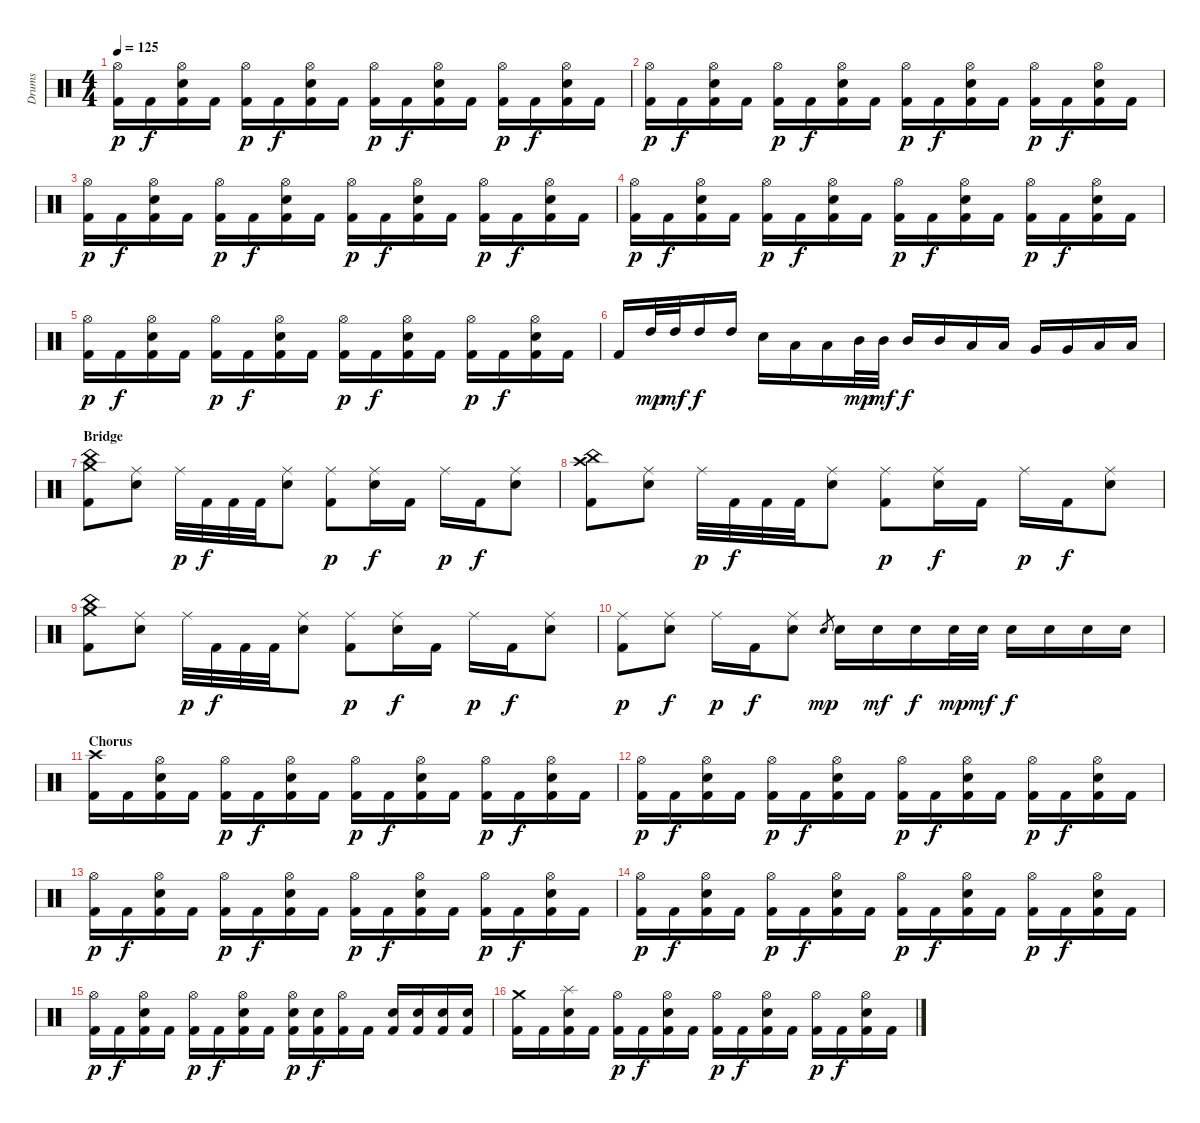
\track ("Drums" "Drums") {instrument percussion}
\staff {score}
\articulation defaults
\ts (4 4)
\tempo 125
\clef neutral
\ks c
("Hi-Hat (open)" "Kick (hit) 2").16{dy p} "Kick (hit) 2".16{dy f} ("Hi-Hat (open)" "Snare (hit) 2" "Kick (hit) 2").16 "Kick (hit) 2".16 ("Hi-Hat (open)" "Kick (hit) 2").16{dy p} "Kick (hit) 2".16{dy f} ("Hi-Hat (open)" "Snare (hit) 2" "Kick (hit) 2").16 "Kick (hit) 2".16 ("Hi-Hat (open)" "Kick (hit) 2").16{dy p} "Kick (hit) 2".16{dy f} ("Hi-Hat (open)" "Snare (hit) 2" "Kick (hit) 2").16 "Kick (hit) 2".16 ("Hi-Hat (open)" "Kick (hit) 2").16{dy p} "Kick (hit) 2".16{dy f} ("Hi-Hat (open)" "Snare (hit) 2" "Kick (hit) 2").16 "Kick (hit) 2".16 |
("Hi-Hat (open)" "Kick (hit) 2").16{dy p} "Kick (hit) 2".16{dy f} ("Hi-Hat (open)" "Snare (hit) 2" "Kick (hit) 2").16 "Kick (hit) 2".16 ("Hi-Hat (open)" "Kick (hit) 2").16{dy p} "Kick (hit) 2".16{dy f} ("Hi-Hat (open)" "Snare (hit) 2" "Kick (hit) 2").16 "Kick (hit) 2".16 ("Hi-Hat (open)" "Kick (hit) 2").16{dy p} "Kick (hit) 2".16{dy f} ("Hi-Hat (open)" "Snare (hit) 2" "Kick (hit) 2").16 "Kick (hit) 2".16 ("Hi-Hat (open)" "Kick (hit) 2").16{dy p} "Kick (hit) 2".16{dy f} ("Hi-Hat (open)" "Snare (hit) 2" "Kick (hit) 2").16 "Kick (hit) 2".16 |
("Hi-Hat (open)" "Kick (hit) 2").16{dy p} "Kick (hit) 2".16{dy f} ("Hi-Hat (open)" "Snare (hit) 2" "Kick (hit) 2").16 "Kick (hit) 2".16 ("Hi-Hat (open)" "Kick (hit) 2").16{dy p} "Kick (hit) 2".16{dy f} ("Hi-Hat (open)" "Snare (hit) 2" "Kick (hit) 2").16 "Kick (hit) 2".16 ("Hi-Hat (open)" "Kick (hit) 2").16{dy p} "Kick (hit) 2".16{dy f} ("Hi-Hat (open)" "Snare (hit) 2" "Kick (hit) 2").16 "Kick (hit) 2".16 ("Hi-Hat (open)" "Kick (hit) 2").16{dy p} "Kick (hit) 2".16{dy f} ("Hi-Hat (open)" "Snare (hit) 2" "Kick (hit) 2").16 "Kick (hit) 2".16 |
("Hi-Hat (open)" "Kick (hit) 2").16{dy p} "Kick (hit) 2".16{dy f} ("Hi-Hat (open)" "Snare (hit) 2" "Kick (hit) 2").16 "Kick (hit) 2".16 ("Hi-Hat (open)" "Kick (hit) 2").16{dy p} "Kick (hit) 2".16{dy f} ("Hi-Hat (open)" "Snare (hit) 2" "Kick (hit) 2").16 "Kick (hit) 2".16 ("Hi-Hat (open)" "Kick (hit) 2").16{dy p} "Kick (hit) 2".16{dy f} ("Hi-Hat (open)" "Snare (hit) 2" "Kick (hit) 2").16 "Kick (hit) 2".16 ("Hi-Hat (open)" "Kick (hit) 2").16{dy p} "Kick (hit) 2".16{dy f} ("Hi-Hat (open)" "Snare (hit) 2" "Kick (hit) 2").16 "Kick (hit) 2".16 |
("Hi-Hat (open)" "Kick (hit) 2").16{dy p} "Kick (hit) 2".16{dy f} ("Hi-Hat (open)" "Snare (hit) 2" "Kick (hit) 2").16 "Kick (hit) 2".16 ("Hi-Hat (open)" "Kick (hit) 2").16{dy p} "Kick (hit) 2".16{dy f} ("Hi-Hat (open)" "Snare (hit) 2" "Kick (hit) 2").16 "Kick (hit) 2".16 ("Hi-Hat (open)" "Kick (hit) 2").16{dy p} "Kick (hit) 2".16{dy f} ("Hi-Hat (open)" "Snare (hit) 2" "Kick (hit) 2").16 "Kick (hit) 2".16 ("Hi-Hat (open)" "Kick (hit) 2").16{dy p} "Kick (hit) 2".16{dy f} ("Hi-Hat (open)" "Snare (hit) 2" "Kick (hit) 2").16 "Kick (hit) 2".16 |
"Kick (hit) 2".16 "High Tom (hit)".32{dy mp} "High Tom (hit)".32{dy mf} "High Tom (hit)".16{dy f} "High Tom (hit)".16 "Snare (hit) 2".16 "Low Tom (hit)".16 "Low Tom (hit)".16 "Mid Tom (hit)".32{dy mp} "Mid Tom (hit)".32{dy mf} "Mid Tom (hit)".16{dy f} "Mid Tom (hit)".16 "Low Tom (hit)".16 "Low Tom (hit)".16 "Very Low Tom (hit)".16 "Very Low Tom (hit)".16 "Low Floor Tom (hit)".16 "Low Floor Tom (hit)".16 |
\section ("" "Bridge")
("Crash medium (hit)" "China (hit)" "Kick (hit) 2").8 ("Ride (middle)" "Snare (hit) 2").8 "Ride (middle)".32{dy p} "Kick (hit) 2".32{dy f} "Kick (hit) 2".32 "Kick (hit) 2".32 ("Ride (middle)" "Snare (hit) 2").8 ("Ride (middle)" "Kick (hit) 2").8{dy p} ("Ride (middle)" "Snare (hit) 2").16{dy f} "Kick (hit) 2".16 "Ride (middle)".16{dy p} "Kick (hit) 2".16{dy f} ("Ride (middle)" "Snare (hit) 2").8 |
("Crash high (hit)" "China (hit)" "Kick (hit) 2").8 ("Ride (middle)" "Snare (hit) 2").8 "Ride (middle)".32{dy p} "Kick (hit) 2".32{dy f} "Kick (hit) 2".32 "Kick (hit) 2".32 ("Ride (middle)" "Snare (hit) 2").8 ("Ride (middle)" "Kick (hit) 2").8{dy p} ("Ride (middle)" "Snare (hit) 2").16{dy f} "Kick (hit) 2".16 "Ride (middle)".16{dy p} "Kick (hit) 2".16{dy f} ("Ride (middle)" "Snare (hit) 2").8 |
("Crash medium (hit)" "China (hit)" "Kick (hit) 2").8 ("Ride (middle)" "Snare (hit) 2").8 "Ride (middle)".32{dy p} "Kick (hit) 2".32{dy f} "Kick (hit) 2".32 "Kick (hit) 2".32 ("Ride (middle)" "Snare (hit) 2").8 ("Ride (middle)" "Kick (hit) 2").8{dy p} ("Ride (middle)" "Snare (hit) 2").16{dy f} "Kick (hit) 2".16 "Ride (middle)".16{dy p} "Kick (hit) 2".16{dy f} ("Ride (middle)" "Snare (hit) 2").8 |
("Ride (middle)" "Kick (hit) 2").8{dy p} ("Ride (middle)" "Snare (hit) 2").8{dy f} "Ride (middle)".16{dy p} "Kick (hit) 2".16{dy f} ("Ride (middle)" "Snare (hit) 2").8 "Snare (hit) 2".8{gr dy mp} "Snare (hit) 2".16 "Snare (hit) 2".16{dy mf} "Snare (hit) 2".16{dy f} "Snare (hit) 2".32{dy mp} "Snare (hit) 2".32{dy mf} "Snare (hit) 2".16{dy f} "Snare (hit) 2".16 "Snare (hit) 2".16 "Snare (hit) 2".16 |
\section ("" "Chorus")
("Crash high (hit)" "Kick (hit) 2").16 "Kick (hit) 2".16 ("Hi-Hat (open)" "Snare (hit) 2" "Kick (hit) 2").16 "Kick (hit) 2".16 ("Hi-Hat (open)" "Kick (hit) 2").16{dy p} "Kick (hit) 2".16{dy f} ("Hi-Hat (open)" "Snare (hit) 2" "Kick (hit) 2").16 "Kick (hit) 2".16 ("Hi-Hat (open)" "Kick (hit) 2").16{dy p} "Kick (hit) 2".16{dy f} ("Hi-Hat (open)" "Snare (hit) 2" "Kick (hit) 2").16 "Kick (hit) 2".16 ("Hi-Hat (open)" "Kick (hit) 2").16{dy p} "Kick (hit) 2".16{dy f} ("Hi-Hat (open)" "Snare (hit) 2" "Kick (hit) 2").16 "Kick (hit) 2".16 |
("Hi-Hat (open)" "Kick (hit) 2").16{dy p} "Kick (hit) 2".16{dy f} ("Hi-Hat (open)" "Snare (hit) 2" "Kick (hit) 2").16 "Kick (hit) 2".16 ("Hi-Hat (open)" "Kick (hit) 2").16{dy p} "Kick (hit) 2".16{dy f} ("Hi-Hat (open)" "Snare (hit) 2" "Kick (hit) 2").16 "Kick (hit) 2".16 ("Hi-Hat (open)" "Kick (hit) 2").16{dy p} "Kick (hit) 2".16{dy f} ("Hi-Hat (open)" "Snare (hit) 2" "Kick (hit) 2").16 "Kick (hit) 2".16 ("Hi-Hat (open)" "Kick (hit) 2").16{dy p} "Kick (hit) 2".16{dy f} ("Hi-Hat (open)" "Snare (hit) 2" "Kick (hit) 2").16 "Kick (hit) 2".16 |
("Hi-Hat (open)" "Kick (hit) 2").16{dy p} "Kick (hit) 2".16{dy f} ("Hi-Hat (open)" "Snare (hit) 2" "Kick (hit) 2").16 "Kick (hit) 2".16 ("Hi-Hat (open)" "Kick (hit) 2").16{dy p} "Kick (hit) 2".16{dy f} ("Hi-Hat (open)" "Snare (hit) 2" "Kick (hit) 2").16 "Kick (hit) 2".16 ("Hi-Hat (open)" "Kick (hit) 2").16{dy p} "Kick (hit) 2".16{dy f} ("Hi-Hat (open)" "Snare (hit) 2" "Kick (hit) 2").16 "Kick (hit) 2".16 ("Hi-Hat (open)" "Kick (hit) 2").16{dy p} "Kick (hit) 2".16{dy f} ("Hi-Hat (open)" "Snare (hit) 2" "Kick (hit) 2").16 "Kick (hit) 2".16 |
("Hi-Hat (open)" "Kick (hit) 2").16{dy p} "Kick (hit) 2".16{dy f} ("Hi-Hat (open)" "Snare (hit) 2" "Kick (hit) 2").16 "Kick (hit) 2".16 ("Hi-Hat (open)" "Kick (hit) 2").16{dy p} "Kick (hit) 2".16{dy f} ("Hi-Hat (open)" "Snare (hit) 2" "Kick (hit) 2").16 "Kick (hit) 2".16 ("Hi-Hat (open)" "Kick (hit) 2").16{dy p} "Kick (hit) 2".16{dy f} ("Hi-Hat (open)" "Snare (hit) 2" "Kick (hit) 2").16 "Kick (hit) 2".16 ("Hi-Hat (open)" "Kick (hit) 2").16{dy p} "Kick (hit) 2".16{dy f} ("Hi-Hat (open)" "Snare (hit) 2" "Kick (hit) 2").16 "Kick (hit) 2".16 |
("Hi-Hat (open)" "Kick (hit) 2").16{dy p} "Kick (hit) 2".16{dy f} ("Hi-Hat (open)" "Snare (hit) 2" "Kick (hit) 2").16 "Kick (hit) 2".16 ("Hi-Hat (open)" "Kick (hit) 2").16{dy p} "Kick (hit) 2".16{dy f} ("Hi-Hat (open)" "Snare (hit) 2" "Kick (hit) 2").16 "Kick (hit) 2".16 ("Hi-Hat (open)" "Snare (hit) 2" "Kick (hit) 2").16{dy p} ("Snare (hit) 2" "Kick (hit) 2").16{dy f} ("Hi-Hat (open)" "Kick (hit) 2").16 "Kick (hit) 2".16 ("Snare (hit) 2" "Kick (hit) 2").16 ("Snare (hit) 2" "Kick (hit) 2").16 ("Snare (hit) 2" "Kick (hit) 2").16 ("Snare (hit) 2" "Kick (hit) 2").16 |
("Crash medium (hit)" "Kick (hit) 2").16 "Kick (hit) 2".16 ("Splash (hit)" "Snare (hit) 2" "Kick (hit) 2").16 "Kick (hit) 2".16 ("Hi-Hat (open)" "Kick (hit) 2").16{dy p} "Kick (hit) 2".16{dy f} ("Hi-Hat (open)" "Snare (hit) 2" "Kick (hit) 2").16 "Kick (hit) 2".16 ("Hi-Hat (open)" "Kick (hit) 2").16{dy p} "Kick (hit) 2".16{dy f} ("Hi-Hat (open)" "Snare (hit) 2" "Kick (hit) 2").16 "Kick (hit) 2".16 ("Hi-Hat (open)" "Kick (hit) 2").16{dy p} "Kick (hit) 2".16{dy f} ("Hi-Hat (open)" "Snare (hit) 2" "Kick (hit) 2").16 "Kick (hit) 2".16
